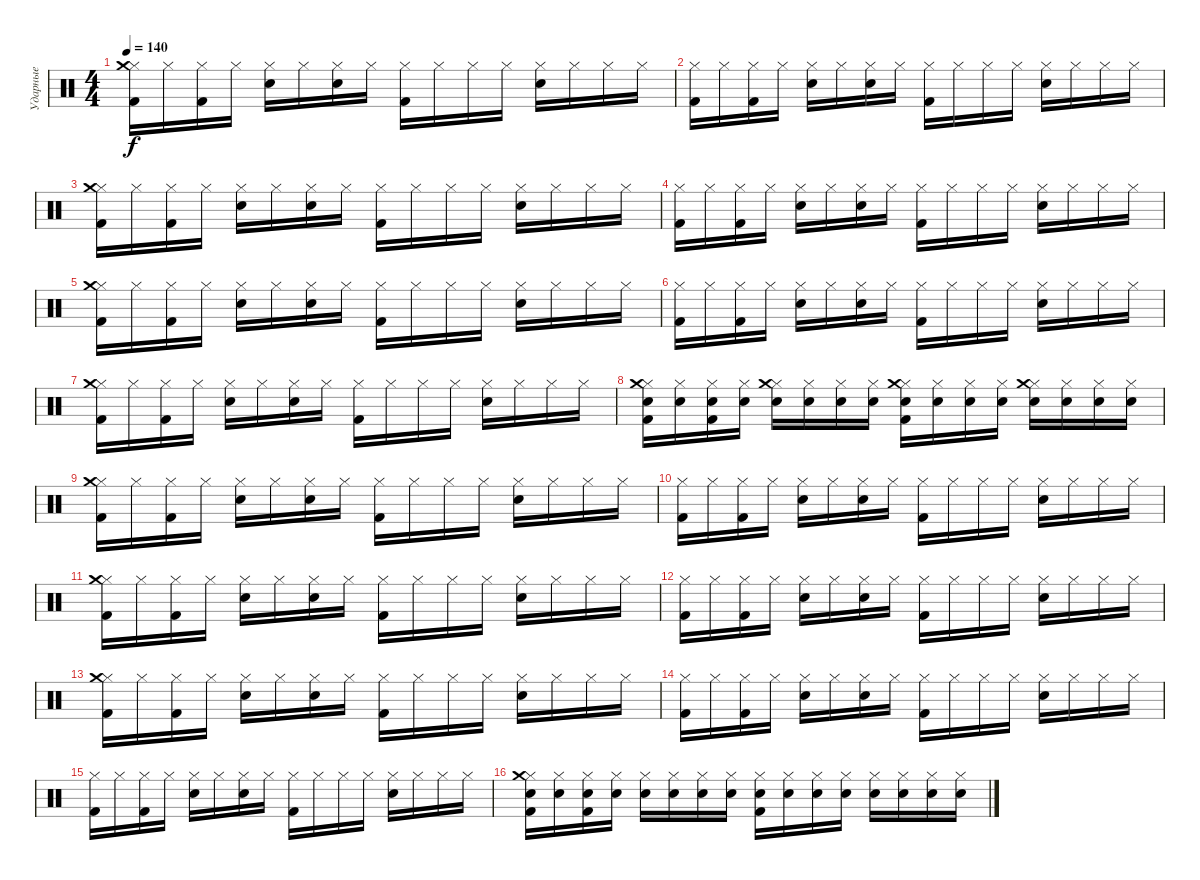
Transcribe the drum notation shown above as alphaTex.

\track ("Ударные" "Ударные") {instrument percussion}
\staff {score}
\articulation defaults
\ts (4 4)
\tempo 140
\clef neutral
\ks c
("Hi-Hat (closed)" "Kick (hit) 2" "Crash medium (hit)").16{dy f} "Hi-Hat (closed)".16 ("Hi-Hat (closed)" "Kick (hit) 2").16 "Hi-Hat (closed)".16 ("Hi-Hat (closed)" "Electric Snare (hit)").16 "Hi-Hat (closed)".16 ("Hi-Hat (closed)" "Electric Snare (hit)").16 "Hi-Hat (closed)".16 ("Hi-Hat (closed)" "Kick (hit) 2").16 "Hi-Hat (closed)".16 "Hi-Hat (closed)".16 "Hi-Hat (closed)".16 ("Hi-Hat (closed)" "Electric Snare (hit)").16 "Hi-Hat (closed)".16 "Hi-Hat (closed)".16 "Hi-Hat (closed)".16 |
("Hi-Hat (closed)" "Kick (hit) 2").16 "Hi-Hat (closed)".16 ("Hi-Hat (closed)" "Kick (hit) 2").16 "Hi-Hat (closed)".16 ("Hi-Hat (closed)" "Electric Snare (hit)").16 "Hi-Hat (closed)".16 ("Hi-Hat (closed)" "Electric Snare (hit)").16 "Hi-Hat (closed)".16 ("Hi-Hat (closed)" "Kick (hit) 2").16 "Hi-Hat (closed)".16 "Hi-Hat (closed)".16 "Hi-Hat (closed)".16 ("Hi-Hat (closed)" "Electric Snare (hit)").16 "Hi-Hat (closed)".16 "Hi-Hat (closed)".16 "Hi-Hat (closed)".16 |
("Hi-Hat (closed)" "Kick (hit) 2" "Crash medium (hit)").16 "Hi-Hat (closed)".16 ("Hi-Hat (closed)" "Kick (hit) 2").16 "Hi-Hat (closed)".16 ("Hi-Hat (closed)" "Electric Snare (hit)").16 "Hi-Hat (closed)".16 ("Hi-Hat (closed)" "Electric Snare (hit)").16 "Hi-Hat (closed)".16 ("Hi-Hat (closed)" "Kick (hit) 2").16 "Hi-Hat (closed)".16 "Hi-Hat (closed)".16 "Hi-Hat (closed)".16 ("Hi-Hat (closed)" "Electric Snare (hit)").16 "Hi-Hat (closed)".16 "Hi-Hat (closed)".16 "Hi-Hat (closed)".16 |
("Hi-Hat (closed)" "Kick (hit) 2").16 "Hi-Hat (closed)".16 ("Hi-Hat (closed)" "Kick (hit) 2").16 "Hi-Hat (closed)".16 ("Hi-Hat (closed)" "Electric Snare (hit)").16 "Hi-Hat (closed)".16 ("Hi-Hat (closed)" "Electric Snare (hit)").16 "Hi-Hat (closed)".16 ("Hi-Hat (closed)" "Kick (hit) 2").16 "Hi-Hat (closed)".16 "Hi-Hat (closed)".16 "Hi-Hat (closed)".16 ("Hi-Hat (closed)" "Electric Snare (hit)").16 "Hi-Hat (closed)".16 "Hi-Hat (closed)".16 "Hi-Hat (closed)".16 |
("Hi-Hat (closed)" "Kick (hit) 2" "Crash medium (hit)").16 "Hi-Hat (closed)".16 ("Hi-Hat (closed)" "Kick (hit) 2").16 "Hi-Hat (closed)".16 ("Hi-Hat (closed)" "Electric Snare (hit)").16 "Hi-Hat (closed)".16 ("Hi-Hat (closed)" "Electric Snare (hit)").16 "Hi-Hat (closed)".16 ("Hi-Hat (closed)" "Kick (hit) 2").16 "Hi-Hat (closed)".16 "Hi-Hat (closed)".16 "Hi-Hat (closed)".16 ("Hi-Hat (closed)" "Electric Snare (hit)").16 "Hi-Hat (closed)".16 "Hi-Hat (closed)".16 "Hi-Hat (closed)".16 |
("Hi-Hat (closed)" "Kick (hit) 2").16 "Hi-Hat (closed)".16 ("Hi-Hat (closed)" "Kick (hit) 2").16 "Hi-Hat (closed)".16 ("Hi-Hat (closed)" "Electric Snare (hit)").16 "Hi-Hat (closed)".16 ("Hi-Hat (closed)" "Electric Snare (hit)").16 "Hi-Hat (closed)".16 ("Hi-Hat (closed)" "Kick (hit) 2").16 "Hi-Hat (closed)".16 "Hi-Hat (closed)".16 "Hi-Hat (closed)".16 ("Hi-Hat (closed)" "Electric Snare (hit)").16 "Hi-Hat (closed)".16 "Hi-Hat (closed)".16 "Hi-Hat (closed)".16 |
("Hi-Hat (closed)" "Kick (hit) 2" "Crash medium (hit)").16 "Hi-Hat (closed)".16 ("Hi-Hat (closed)" "Kick (hit) 2").16 "Hi-Hat (closed)".16 ("Hi-Hat (closed)" "Electric Snare (hit)").16 "Hi-Hat (closed)".16 ("Hi-Hat (closed)" "Electric Snare (hit)").16 "Hi-Hat (closed)".16 ("Hi-Hat (closed)" "Kick (hit) 2").16 "Hi-Hat (closed)".16 "Hi-Hat (closed)".16 "Hi-Hat (closed)".16 ("Hi-Hat (closed)" "Electric Snare (hit)").16 "Hi-Hat (closed)".16 "Hi-Hat (closed)".16 "Hi-Hat (closed)".16 |
("Hi-Hat (closed)" "Kick (hit) 2" "Electric Snare (hit)" "Crash medium (hit)").16 ("Hi-Hat (closed)" "Electric Snare (hit)").16 ("Hi-Hat (closed)" "Kick (hit) 2" "Electric Snare (hit)").16 ("Hi-Hat (closed)" "Electric Snare (hit)").16 ("Hi-Hat (closed)" "Electric Snare (hit)" "Crash medium (hit)").16 ("Hi-Hat (closed)" "Electric Snare (hit)").16 ("Hi-Hat (closed)" "Electric Snare (hit)").16 ("Hi-Hat (closed)" "Electric Snare (hit)").16 ("Hi-Hat (closed)" "Electric Snare (hit)" "Kick (hit) 2" "Crash medium (hit)").16 ("Hi-Hat (closed)" "Electric Snare (hit)").16 ("Hi-Hat (closed)" "Electric Snare (hit)").16 ("Hi-Hat (closed)" "Electric Snare (hit)").16 ("Hi-Hat (closed)" "Electric Snare (hit)" "Crash medium (hit)").16 ("Hi-Hat (closed)" "Electric Snare (hit)").16 ("Hi-Hat (closed)" "Electric Snare (hit)").16 ("Hi-Hat (closed)" "Electric Snare (hit)").16 |
("Hi-Hat (closed)" "Kick (hit) 2" "Crash medium (hit)").16 "Hi-Hat (closed)".16 ("Hi-Hat (closed)" "Kick (hit) 2").16 "Hi-Hat (closed)".16 ("Hi-Hat (closed)" "Electric Snare (hit)").16 "Hi-Hat (closed)".16 ("Hi-Hat (closed)" "Electric Snare (hit)").16 "Hi-Hat (closed)".16 ("Hi-Hat (closed)" "Kick (hit) 2").16 "Hi-Hat (closed)".16 "Hi-Hat (closed)".16 "Hi-Hat (closed)".16 ("Hi-Hat (closed)" "Electric Snare (hit)").16 "Hi-Hat (closed)".16 "Hi-Hat (closed)".16 "Hi-Hat (closed)".16 |
("Hi-Hat (closed)" "Kick (hit) 2").16 "Hi-Hat (closed)".16 ("Hi-Hat (closed)" "Kick (hit) 2").16 "Hi-Hat (closed)".16 ("Hi-Hat (closed)" "Electric Snare (hit)").16 "Hi-Hat (closed)".16 ("Hi-Hat (closed)" "Electric Snare (hit)").16 "Hi-Hat (closed)".16 ("Hi-Hat (closed)" "Kick (hit) 2").16 "Hi-Hat (closed)".16 "Hi-Hat (closed)".16 "Hi-Hat (closed)".16 ("Hi-Hat (closed)" "Electric Snare (hit)").16 "Hi-Hat (closed)".16 "Hi-Hat (closed)".16 "Hi-Hat (closed)".16 |
("Hi-Hat (closed)" "Kick (hit) 2" "Crash medium (hit)").16 "Hi-Hat (closed)".16 ("Hi-Hat (closed)" "Kick (hit) 2").16 "Hi-Hat (closed)".16 ("Hi-Hat (closed)" "Electric Snare (hit)").16 "Hi-Hat (closed)".16 ("Hi-Hat (closed)" "Electric Snare (hit)").16 "Hi-Hat (closed)".16 ("Hi-Hat (closed)" "Kick (hit) 2").16 "Hi-Hat (closed)".16 "Hi-Hat (closed)".16 "Hi-Hat (closed)".16 ("Hi-Hat (closed)" "Electric Snare (hit)").16 "Hi-Hat (closed)".16 "Hi-Hat (closed)".16 "Hi-Hat (closed)".16 |
("Hi-Hat (closed)" "Kick (hit) 2").16 "Hi-Hat (closed)".16 ("Hi-Hat (closed)" "Kick (hit) 2").16 "Hi-Hat (closed)".16 ("Hi-Hat (closed)" "Electric Snare (hit)").16 "Hi-Hat (closed)".16 ("Hi-Hat (closed)" "Electric Snare (hit)").16 "Hi-Hat (closed)".16 ("Hi-Hat (closed)" "Kick (hit) 2").16 "Hi-Hat (closed)".16 "Hi-Hat (closed)".16 "Hi-Hat (closed)".16 ("Hi-Hat (closed)" "Electric Snare (hit)").16 "Hi-Hat (closed)".16 "Hi-Hat (closed)".16 "Hi-Hat (closed)".16 |
("Hi-Hat (closed)" "Kick (hit) 2" "Crash medium (hit)").16 "Hi-Hat (closed)".16 ("Hi-Hat (closed)" "Kick (hit) 2").16 "Hi-Hat (closed)".16 ("Hi-Hat (closed)" "Electric Snare (hit)").16 "Hi-Hat (closed)".16 ("Hi-Hat (closed)" "Electric Snare (hit)").16 "Hi-Hat (closed)".16 ("Hi-Hat (closed)" "Kick (hit) 2").16 "Hi-Hat (closed)".16 "Hi-Hat (closed)".16 "Hi-Hat (closed)".16 ("Hi-Hat (closed)" "Electric Snare (hit)").16 "Hi-Hat (closed)".16 "Hi-Hat (closed)".16 "Hi-Hat (closed)".16 |
("Hi-Hat (closed)" "Kick (hit) 2").16 "Hi-Hat (closed)".16 ("Hi-Hat (closed)" "Kick (hit) 2").16 "Hi-Hat (closed)".16 ("Hi-Hat (closed)" "Electric Snare (hit)").16 "Hi-Hat (closed)".16 ("Hi-Hat (closed)" "Electric Snare (hit)").16 "Hi-Hat (closed)".16 ("Hi-Hat (closed)" "Kick (hit) 2").16 "Hi-Hat (closed)".16 "Hi-Hat (closed)".16 "Hi-Hat (closed)".16 ("Hi-Hat (closed)" "Electric Snare (hit)").16 "Hi-Hat (closed)".16 "Hi-Hat (closed)".16 "Hi-Hat (closed)".16 |
("Hi-Hat (closed)" "Kick (hit) 2").16 "Hi-Hat (closed)".16 ("Hi-Hat (closed)" "Kick (hit) 2").16 "Hi-Hat (closed)".16 ("Hi-Hat (closed)" "Electric Snare (hit)").16 "Hi-Hat (closed)".16 ("Hi-Hat (closed)" "Electric Snare (hit)").16 "Hi-Hat (closed)".16 ("Hi-Hat (closed)" "Kick (hit) 2").16 "Hi-Hat (closed)".16 "Hi-Hat (closed)".16 "Hi-Hat (closed)".16 ("Hi-Hat (closed)" "Electric Snare (hit)").16 "Hi-Hat (closed)".16 "Hi-Hat (closed)".16 "Hi-Hat (closed)".16 |
("Hi-Hat (closed)" "Kick (hit) 2" "Electric Snare (hit)" "Crash medium (hit)").16 ("Hi-Hat (closed)" "Electric Snare (hit)").16 ("Hi-Hat (closed)" "Kick (hit) 2" "Electric Snare (hit)").16 ("Hi-Hat (closed)" "Electric Snare (hit)").16 ("Hi-Hat (closed)" "Electric Snare (hit)").16 ("Hi-Hat (closed)" "Electric Snare (hit)").16 ("Hi-Hat (closed)" "Electric Snare (hit)").16 ("Hi-Hat (closed)" "Electric Snare (hit)").16 ("Hi-Hat (closed)" "Electric Snare (hit)" "Kick (hit) 2").16 ("Hi-Hat (closed)" "Electric Snare (hit)").16 ("Hi-Hat (closed)" "Electric Snare (hit)").16 ("Hi-Hat (closed)" "Electric Snare (hit)").16 ("Hi-Hat (closed)" "Electric Snare (hit)").16 ("Hi-Hat (closed)" "Electric Snare (hit)").16 ("Hi-Hat (closed)" "Electric Snare (hit)").16 ("Hi-Hat (closed)" "Electric Snare (hit)").16
